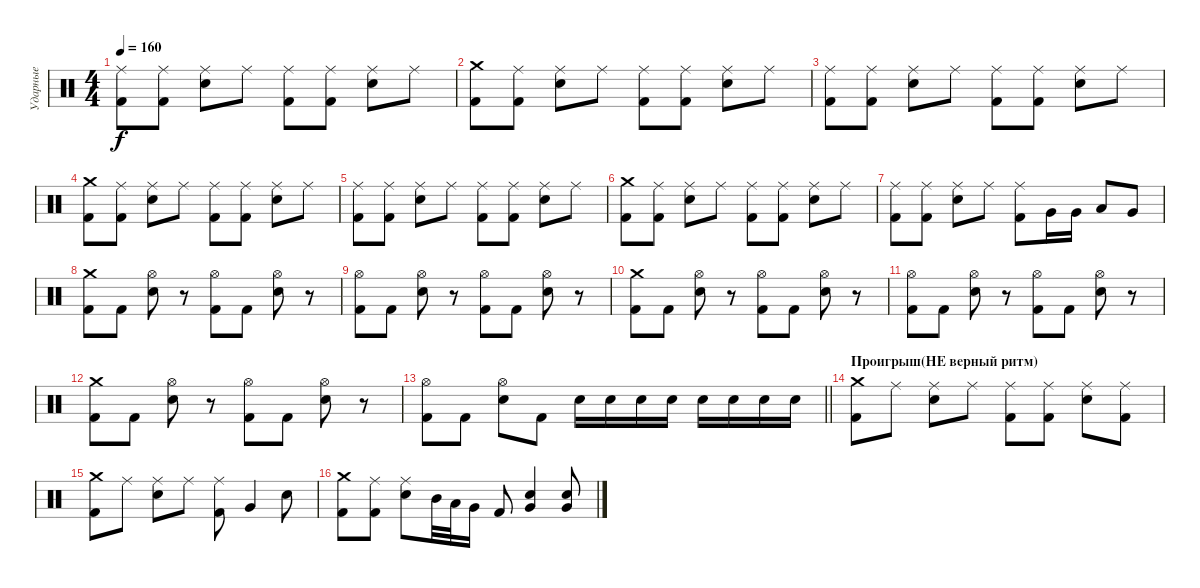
\track ("Ударные" "Ударные") {instrument percussion}
\staff {score}
\articulation defaults
\ts (4 4)
\tempo 160
\clef neutral
\ks c
("Ride (middle)" "Kick (hit) 2").8{dy f} ("Ride (middle)" "Kick (hit) 2").8 ("Ride (middle)" "Snare (hit) 2").8 "Ride (middle)".8 ("Ride (middle)" "Kick (hit) 2").8 ("Ride (middle)" "Kick (hit) 2").8 ("Ride (middle)" "Snare (hit) 2").8 "Ride (middle)".8 |
("Crash medium (hit)" "Kick (hit) 2").8 ("Ride (middle)" "Kick (hit) 2").8 ("Ride (middle)" "Snare (hit) 2").8 "Ride (middle)".8 ("Ride (middle)" "Kick (hit) 2").8 ("Ride (middle)" "Kick (hit) 2").8 ("Ride (middle)" "Snare (hit) 2").8 "Ride (middle)".8 |
("Ride (middle)" "Kick (hit) 2").8 ("Ride (middle)" "Kick (hit) 2").8 ("Ride (middle)" "Snare (hit) 2").8 "Ride (middle)".8 ("Ride (middle)" "Kick (hit) 2").8 ("Ride (middle)" "Kick (hit) 2").8 ("Ride (middle)" "Snare (hit) 2").8 "Ride (middle)".8 |
("Crash medium (hit)" "Kick (hit) 2").8 ("Ride (middle)" "Kick (hit) 2").8 ("Ride (middle)" "Snare (hit) 2").8 "Ride (middle)".8 ("Ride (middle)" "Kick (hit) 2").8 ("Ride (middle)" "Kick (hit) 2").8 ("Ride (middle)" "Snare (hit) 2").8 "Ride (middle)".8 |
("Ride (middle)" "Kick (hit) 2").8 ("Ride (middle)" "Kick (hit) 2").8 ("Ride (middle)" "Snare (hit) 2").8 "Ride (middle)".8 ("Ride (middle)" "Kick (hit) 2").8 ("Ride (middle)" "Kick (hit) 2").8 ("Ride (middle)" "Snare (hit) 2").8 "Ride (middle)".8 |
("Crash medium (hit)" "Kick (hit) 2").8 ("Ride (middle)" "Kick (hit) 2").8 ("Ride (middle)" "Snare (hit) 2").8 "Ride (middle)".8 ("Ride (middle)" "Kick (hit) 2").8 ("Ride (middle)" "Kick (hit) 2").8 ("Ride (middle)" "Snare (hit) 2").8 "Ride (middle)".8 |
("Ride (middle)" "Kick (hit) 2").8 ("Ride (middle)" "Kick (hit) 2").8 ("Ride (middle)" "Snare (hit) 2").8 "Ride (middle)".8 ("Ride (middle)" "Kick (hit) 2").8 "Very Low Tom (hit)".16 "Very Low Tom (hit)".16 "Low Tom (hit)".8 "Very Low Tom (hit)".8 |
("Crash medium (hit)" "Kick (hit) 2").8 "Kick (hit) 2".8 ("Hi-Hat (open)" "Snare (hit) 2").8 r.8 ("Hi-Hat (open)" "Kick (hit) 2").8 "Kick (hit) 2".8 ("Hi-Hat (open)" "Snare (hit) 2").8 r.8 |
("Hi-Hat (open)" "Kick (hit) 2").8 "Kick (hit) 2".8 ("Hi-Hat (open)" "Snare (hit) 2").8 r.8 ("Hi-Hat (open)" "Kick (hit) 2").8 "Kick (hit) 2".8 ("Hi-Hat (open)" "Snare (hit) 2").8 r.8 |
("Crash medium (hit)" "Kick (hit) 2").8 "Kick (hit) 2".8 ("Hi-Hat (open)" "Snare (hit) 2").8 r.8 ("Hi-Hat (open)" "Kick (hit) 2").8 "Kick (hit) 2".8 ("Hi-Hat (open)" "Snare (hit) 2").8 r.8 |
("Hi-Hat (open)" "Kick (hit) 2").8 "Kick (hit) 2".8 ("Hi-Hat (open)" "Snare (hit) 2").8 r.8 ("Hi-Hat (open)" "Kick (hit) 2").8 "Kick (hit) 2".8 ("Hi-Hat (open)" "Snare (hit) 2").8 r.8 |
("Crash medium (hit)" "Kick (hit) 2").8 "Kick (hit) 2".8 ("Hi-Hat (open)" "Snare (hit) 2").8 r.8 ("Hi-Hat (open)" "Kick (hit) 2").8 "Kick (hit) 2".8 ("Hi-Hat (open)" "Snare (hit) 2").8 r.8 |
\barLineRight lightlight
("Hi-Hat (open)" "Kick (hit) 2").8 "Kick (hit) 2".8 ("Hi-Hat (open)" "Snare (hit) 2").8 "Kick (hit) 2".8 "Snare (hit) 2".16 "Snare (hit) 2".16 "Snare (hit) 2".16 "Snare (hit) 2".16 "Snare (hit) 2".16 "Snare (hit) 2".16 "Snare (hit) 2".16 "Snare (hit) 2".16 |
\section ("" "Проигрыш(НЕ верный ритм)")
("Crash medium (hit)" "Kick (hit) 2").8 "Ride (middle)".8 ("Ride (middle)" "Snare (hit) 2").8 "Ride (middle)".8 ("Ride (middle)" "Kick (hit) 2").8 ("Ride (middle)" "Kick (hit) 2").8 ("Ride (middle)" "Snare (hit) 2").8 ("Ride (middle)" "Kick (hit) 2").8 |
("Crash medium (hit)" "Kick (hit) 2").8 "Ride (middle)".8 ("Ride (middle)" "Snare (hit) 2").8 "Ride (middle)".8 ("Ride (middle)" "Kick (hit) 2").8 "Very Low Tom (hit)".4 "Snare (hit) 2".8 |
("Crash medium (hit)" "Kick (hit) 2").8 ("Ride (middle)" "Kick (hit) 2").8 ("Ride (middle)" "Snare (hit) 2").8 "Mid Tom (hit)".32 "Low Tom (hit)".32 "Very Low Tom (hit)".16 "Kick (hit) 2".8 ("Very Low Tom (hit)" "Snare (hit) 2").4 ("Very Low Tom (hit)" "Snare (hit) 2").8
